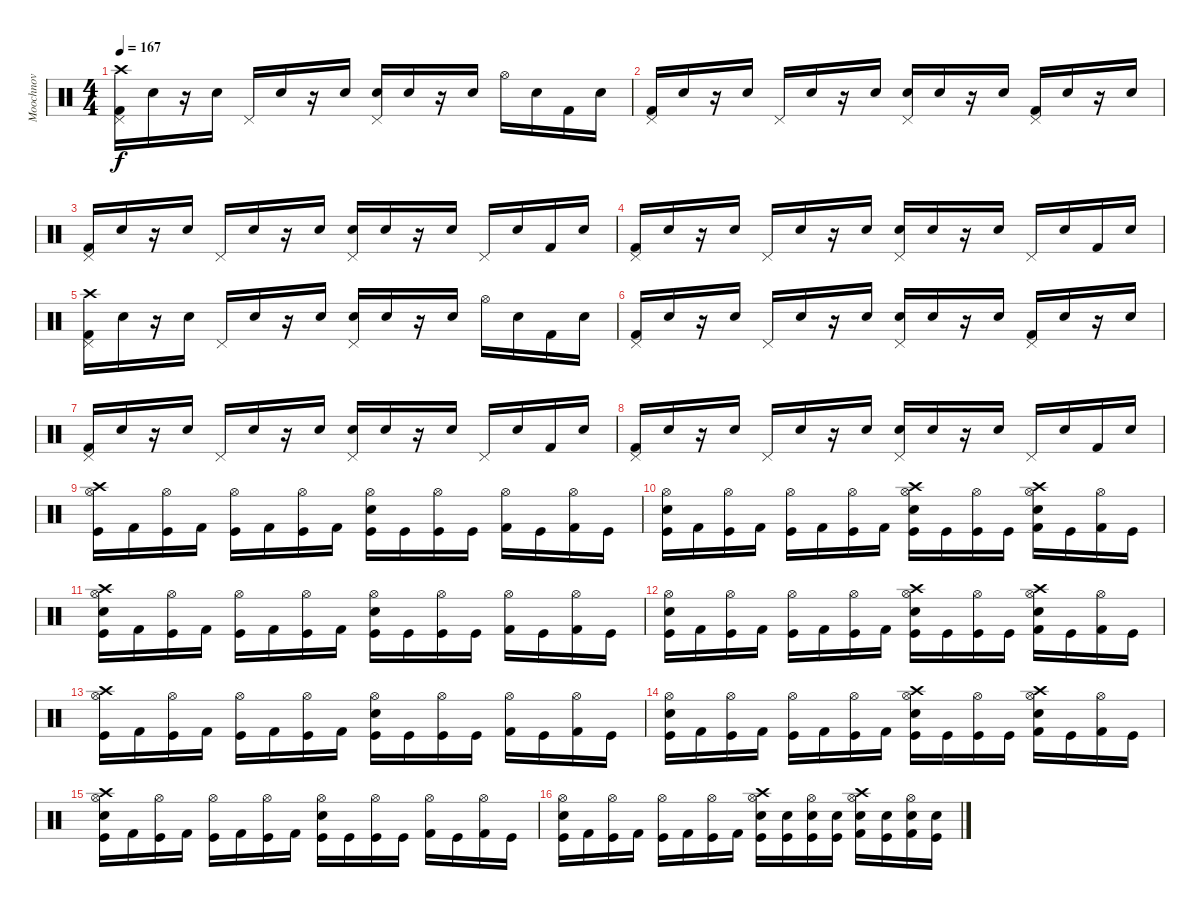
\track ("Moochnov" "Moochnov") {instrument percussion}
\staff {score}
\articulation defaults
\ts (4 4)
\tempo 167
\clef neutral
\ks c
("Pedal Hi-Hat (hit)" "Kick (hit) 2" "Crash high (hit)").16{dy f} "Snare (hit)"{x}.16 r.16 "Snare (hit)"{x}.16 "Pedal Hi-Hat (hit)".16 "Snare (hit)"{x}.16 r.16 "Snare (hit)"{x}.16 ("Pedal Hi-Hat (hit)" "Snare (hit) 2").16 "Snare (hit)"{x}.16 r.16 "Snare (hit)"{x}.16 "Hi-Hat (open)".16 "Snare (hit)"{x}.16 "Kick (hit) 2".16 "Snare (hit)"{x}.16 |
("Pedal Hi-Hat (hit)" "Kick (hit) 2").16 "Snare (hit)"{x}.16 r.16 "Snare (hit)"{x}.16 "Pedal Hi-Hat (hit)".16 "Snare (hit)"{x}.16 r.16 "Snare (hit)"{x}.16 ("Pedal Hi-Hat (hit)" "Snare (hit) 2").16 "Snare (hit)"{x}.16 r.16 "Snare (hit)"{x}.16 ("Pedal Hi-Hat (hit)" "Kick (hit) 2").16 "Snare (hit)"{x}.16 r.16 "Snare (hit)"{x}.16 |
("Pedal Hi-Hat (hit)" "Kick (hit) 2").16 "Snare (hit)"{x}.16 r.16 "Snare (hit)"{x}.16 "Pedal Hi-Hat (hit)".16 "Snare (hit)"{x}.16 r.16 "Snare (hit)"{x}.16 ("Pedal Hi-Hat (hit)" "Snare (hit) 2").16 "Snare (hit)"{x}.16 r.16 "Snare (hit)"{x}.16 "Pedal Hi-Hat (hit)".16 "Snare (hit)"{x}.16 "Kick (hit) 2".16 "Snare (hit)"{x}.16 |
("Pedal Hi-Hat (hit)" "Kick (hit) 2").16 "Snare (hit)"{x}.16 r.16 "Snare (hit)"{x}.16 "Pedal Hi-Hat (hit)".16 "Snare (hit)"{x}.16 r.16 "Snare (hit)"{x}.16 ("Pedal Hi-Hat (hit)" "Snare (hit) 2").16 "Snare (hit)"{x}.16 r.16 "Snare (hit)"{x}.16 "Pedal Hi-Hat (hit)".16 "Snare (hit)"{x}.16 "Kick (hit) 2".16 "Snare (hit)"{x}.16 |
("Pedal Hi-Hat (hit)" "Kick (hit) 2" "Crash high (hit)").16 "Snare (hit)"{x}.16 r.16 "Snare (hit)"{x}.16 "Pedal Hi-Hat (hit)".16 "Snare (hit)"{x}.16 r.16 "Snare (hit)"{x}.16 ("Pedal Hi-Hat (hit)" "Snare (hit) 2").16 "Snare (hit)"{x}.16 r.16 "Snare (hit)"{x}.16 "Hi-Hat (open)".16 "Snare (hit)"{x}.16 "Kick (hit) 2".16 "Snare (hit)"{x}.16 |
("Pedal Hi-Hat (hit)" "Kick (hit) 2").16 "Snare (hit)"{x}.16 r.16 "Snare (hit)"{x}.16 "Pedal Hi-Hat (hit)".16 "Snare (hit)"{x}.16 r.16 "Snare (hit)"{x}.16 ("Pedal Hi-Hat (hit)" "Snare (hit) 2").16 "Snare (hit)"{x}.16 r.16 "Snare (hit)"{x}.16 ("Pedal Hi-Hat (hit)" "Kick (hit) 2").16 "Snare (hit)"{x}.16 r.16 "Snare (hit)"{x}.16 |
("Pedal Hi-Hat (hit)" "Kick (hit) 2").16 "Snare (hit)"{x}.16 r.16 "Snare (hit)"{x}.16 "Pedal Hi-Hat (hit)".16 "Snare (hit)"{x}.16 r.16 "Snare (hit)"{x}.16 ("Pedal Hi-Hat (hit)" "Snare (hit) 2").16 "Snare (hit)"{x}.16 r.16 "Snare (hit)"{x}.16 "Pedal Hi-Hat (hit)".16 "Snare (hit)"{x}.16 "Kick (hit) 2".16 "Snare (hit)"{x}.16 |
("Pedal Hi-Hat (hit)" "Kick (hit) 2").16 "Snare (hit)"{x}.16 r.16 "Snare (hit)"{x}.16 "Pedal Hi-Hat (hit)".16 "Snare (hit)"{x}.16 r.16 "Snare (hit)"{x}.16 ("Pedal Hi-Hat (hit)" "Snare (hit) 2").16 "Snare (hit)"{x}.16 r.16 "Snare (hit)"{x}.16 "Pedal Hi-Hat (hit)".16 "Snare (hit)"{x}.16 "Kick (hit) 2".16 "Snare (hit)"{x}.16 |
("Kick (hit)" "Crash high (hit)" "Hi-Hat (open)").16 "Kick (hit) 2".16 ("Kick (hit)" "Hi-Hat (open)").16 "Kick (hit) 2".16 ("Kick (hit)" "Hi-Hat (open)").16 "Kick (hit) 2".16 ("Kick (hit)" "Hi-Hat (open)").16 "Kick (hit) 2".16 ("Kick (hit)" "Snare (hit) 2" "Hi-Hat (open)").16 "Kick (hit)".16 ("Kick (hit)" "Hi-Hat (open)").16 "Kick (hit)".16 ("Kick (hit) 2" "Hi-Hat (open)").16 "Kick (hit)".16 ("Kick (hit) 2" "Hi-Hat (open)").16 "Kick (hit)".16 |
("Kick (hit)" "Snare (hit) 2" "Hi-Hat (open)").16 "Kick (hit) 2".16 ("Kick (hit)" "Hi-Hat (open)").16 "Kick (hit) 2".16 ("Kick (hit)" "Hi-Hat (open)").16 "Kick (hit) 2".16 ("Kick (hit)" "Hi-Hat (open)").16 "Kick (hit) 2".16 ("Kick (hit)" "Snare (hit) 2" "Hi-Hat (open)" "Crash high (hit)").16 "Kick (hit)".16 ("Kick (hit)" "Hi-Hat (open)").16 "Kick (hit)".16 ("Kick (hit) 2" "Snare (hit) 2" "Hi-Hat (open)" "Crash high (hit)").16 "Kick (hit)".16 ("Kick (hit) 2" "Hi-Hat (open)").16 "Kick (hit)".16 |
("Kick (hit)" "Snare (hit) 2" "Hi-Hat (open)" "Crash high (hit)").16 "Kick (hit) 2".16 ("Kick (hit)" "Hi-Hat (open)").16 "Kick (hit) 2".16 ("Kick (hit)" "Hi-Hat (open)").16 "Kick (hit) 2".16 ("Kick (hit)" "Hi-Hat (open)").16 "Kick (hit) 2".16 ("Kick (hit)" "Snare (hit) 2" "Hi-Hat (open)").16 "Kick (hit)".16 ("Kick (hit)" "Hi-Hat (open)").16 "Kick (hit)".16 ("Kick (hit) 2" "Hi-Hat (open)").16 "Kick (hit)".16 ("Kick (hit) 2" "Hi-Hat (open)").16 "Kick (hit)".16 |
("Kick (hit)" "Snare (hit) 2" "Hi-Hat (open)").16 "Kick (hit) 2".16 ("Kick (hit)" "Hi-Hat (open)").16 "Kick (hit) 2".16 ("Kick (hit)" "Hi-Hat (open)").16 "Kick (hit) 2".16 ("Kick (hit)" "Hi-Hat (open)").16 "Kick (hit) 2".16 ("Kick (hit)" "Snare (hit) 2" "Hi-Hat (open)" "Crash high (hit)").16 "Kick (hit)".16 ("Kick (hit)" "Hi-Hat (open)").16 "Kick (hit)".16 ("Kick (hit) 2" "Snare (hit) 2" "Hi-Hat (open)" "Crash high (hit)").16 "Kick (hit)".16 ("Kick (hit) 2" "Hi-Hat (open)").16 "Kick (hit)".16 |
("Kick (hit)" "Crash high (hit)" "Hi-Hat (open)").16 "Kick (hit) 2".16 ("Kick (hit)" "Hi-Hat (open)").16 "Kick (hit) 2".16 ("Kick (hit)" "Hi-Hat (open)").16 "Kick (hit) 2".16 ("Kick (hit)" "Hi-Hat (open)").16 "Kick (hit) 2".16 ("Kick (hit)" "Snare (hit) 2" "Hi-Hat (open)").16 "Kick (hit)".16 ("Kick (hit)" "Hi-Hat (open)").16 "Kick (hit)".16 ("Kick (hit) 2" "Hi-Hat (open)").16 "Kick (hit)".16 ("Kick (hit) 2" "Hi-Hat (open)").16 "Kick (hit)".16 |
("Kick (hit)" "Snare (hit) 2" "Hi-Hat (open)").16 "Kick (hit) 2".16 ("Kick (hit)" "Hi-Hat (open)").16 "Kick (hit) 2".16 ("Kick (hit)" "Hi-Hat (open)").16 "Kick (hit) 2".16 ("Kick (hit)" "Hi-Hat (open)").16 "Kick (hit) 2".16 ("Kick (hit)" "Snare (hit) 2" "Hi-Hat (open)" "Crash high (hit)").16 "Kick (hit)".16 ("Kick (hit)" "Hi-Hat (open)").16 "Kick (hit)".16 ("Kick (hit) 2" "Snare (hit) 2" "Hi-Hat (open)" "Crash high (hit)").16 "Kick (hit)".16 ("Kick (hit) 2" "Hi-Hat (open)").16 "Kick (hit)".16 |
("Kick (hit)" "Snare (hit) 2" "Hi-Hat (open)" "Crash high (hit)").16 "Kick (hit) 2".16 ("Kick (hit)" "Hi-Hat (open)").16 "Kick (hit) 2".16 ("Kick (hit)" "Hi-Hat (open)").16 "Kick (hit) 2".16 ("Kick (hit)" "Hi-Hat (open)").16 "Kick (hit) 2".16 ("Kick (hit)" "Snare (hit) 2" "Hi-Hat (open)").16 "Kick (hit)".16 ("Kick (hit)" "Hi-Hat (open)").16 "Kick (hit)".16 ("Kick (hit) 2" "Hi-Hat (open)").16 "Kick (hit)".16 ("Kick (hit) 2" "Hi-Hat (open)").16 "Kick (hit)".16 |
("Kick (hit)" "Snare (hit) 2" "Hi-Hat (open)").16 "Kick (hit) 2".16 ("Kick (hit)" "Hi-Hat (open)").16 "Kick (hit) 2".16 ("Kick (hit)" "Hi-Hat (open)").16 "Kick (hit) 2".16 ("Kick (hit)" "Hi-Hat (open)").16 "Kick (hit) 2".16 ("Kick (hit)" "Snare (hit) 2" "Hi-Hat (open)" "Crash high (hit)").16 ("Kick (hit)" "Snare (hit) 2").16 ("Kick (hit)" "Snare (hit) 2" "Hi-Hat (open)").16 ("Kick (hit)" "Snare (hit) 2").16 ("Kick (hit) 2" "Snare (hit) 2" "Hi-Hat (open)" "Crash high (hit)").16 ("Kick (hit)" "Snare (hit) 2").16 ("Kick (hit) 2" "Snare (hit) 2" "Hi-Hat (open)").16 ("Kick (hit)" "Snare (hit) 2").16
